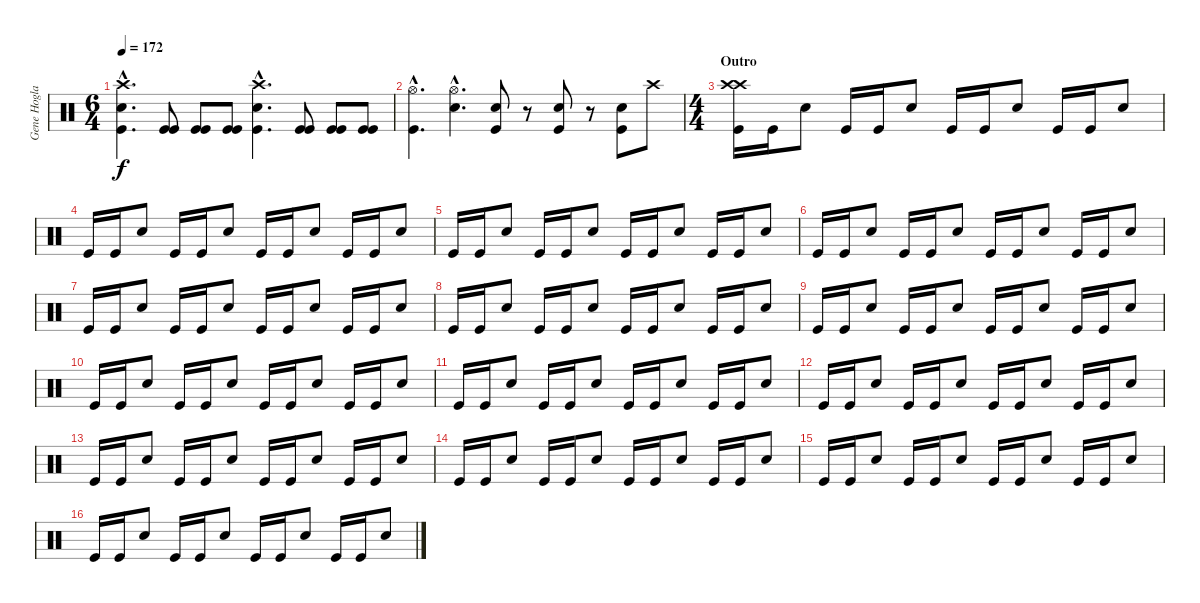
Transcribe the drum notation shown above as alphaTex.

\track ("Gene Hoglan" "Gene Hogla") {instrument percussion}
\staff {score}
\articulation defaults
\ts (6 4)
\tempo 172
\clef neutral
\ks c
("Crash high (hit)"{hac} "Snare (hit) 2"{hac} "Kick (hit)"{hac}).4{d dy f} ("Kick (hit)" "Kick (hit)").8 ("Kick (hit)" "Kick (hit)").8 ("Kick (hit)" "Kick (hit)").8 ("Crash high (hit)"{hac} "Snare (hit) 2"{hac} "Kick (hit)"{hac}).4{d} ("Kick (hit)" "Kick (hit)").8 ("Kick (hit)" "Kick (hit)").8 ("Kick (hit)" "Kick (hit)").8 |
("Hi-Hat (open)"{hac} "Kick (hit)"{hac}).4{d} ("Hi-Hat (open)"{hac} "Snare (hit) 2"{hac}).4{d} ("Snare (hit) 2" "Kick (hit)").8 r.8 ("Snare (hit) 2" "Kick (hit)").8 r.8 ("Snare (hit) 2" "Kick (hit)").8 "Crash high (hit)".8 |
\ts (4 4)
\section ("" "Outro")
("Crash high (hit)" "Crash high (hit)" "Kick (hit)").16 "Kick (hit)".16 "Snare (hit) 2".8 "Kick (hit)".16 "Kick (hit)".16 "Snare (hit) 2".8 "Kick (hit)".16 "Kick (hit)".16 "Snare (hit) 2".8 "Kick (hit)".16 "Kick (hit)".16 "Snare (hit) 2".8 |
"Kick (hit)".16 "Kick (hit)".16 "Snare (hit) 2".8 "Kick (hit)".16 "Kick (hit)".16 "Snare (hit) 2".8 "Kick (hit)".16 "Kick (hit)".16 "Snare (hit) 2".8 "Kick (hit)".16 "Kick (hit)".16 "Snare (hit) 2".8 |
"Kick (hit)".16 "Kick (hit)".16 "Snare (hit) 2".8 "Kick (hit)".16 "Kick (hit)".16 "Snare (hit) 2".8 "Kick (hit)".16 "Kick (hit)".16 "Snare (hit) 2".8 "Kick (hit)".16 "Kick (hit)".16 "Snare (hit) 2".8 |
"Kick (hit)".16 "Kick (hit)".16 "Snare (hit) 2".8 "Kick (hit)".16 "Kick (hit)".16 "Snare (hit) 2".8 "Kick (hit)".16 "Kick (hit)".16 "Snare (hit) 2".8 "Kick (hit)".16 "Kick (hit)".16 "Snare (hit) 2".8 |
"Kick (hit)".16 "Kick (hit)".16 "Snare (hit) 2".8 "Kick (hit)".16 "Kick (hit)".16 "Snare (hit) 2".8 "Kick (hit)".16 "Kick (hit)".16 "Snare (hit) 2".8 "Kick (hit)".16 "Kick (hit)".16 "Snare (hit) 2".8 |
"Kick (hit)".16 "Kick (hit)".16 "Snare (hit) 2".8 "Kick (hit)".16 "Kick (hit)".16 "Snare (hit) 2".8 "Kick (hit)".16 "Kick (hit)".16 "Snare (hit) 2".8 "Kick (hit)".16 "Kick (hit)".16 "Snare (hit) 2".8 |
"Kick (hit)".16 "Kick (hit)".16 "Snare (hit) 2".8 "Kick (hit)".16 "Kick (hit)".16 "Snare (hit) 2".8 "Kick (hit)".16 "Kick (hit)".16 "Snare (hit) 2".8 "Kick (hit)".16 "Kick (hit)".16 "Snare (hit) 2".8 |
"Kick (hit)".16 "Kick (hit)".16 "Snare (hit) 2".8 "Kick (hit)".16 "Kick (hit)".16 "Snare (hit) 2".8 "Kick (hit)".16 "Kick (hit)".16 "Snare (hit) 2".8 "Kick (hit)".16 "Kick (hit)".16 "Snare (hit) 2".8 |
"Kick (hit)".16 "Kick (hit)".16 "Snare (hit) 2".8 "Kick (hit)".16 "Kick (hit)".16 "Snare (hit) 2".8 "Kick (hit)".16 "Kick (hit)".16 "Snare (hit) 2".8 "Kick (hit)".16 "Kick (hit)".16 "Snare (hit) 2".8 |
"Kick (hit)".16 "Kick (hit)".16 "Snare (hit) 2".8 "Kick (hit)".16 "Kick (hit)".16 "Snare (hit) 2".8 "Kick (hit)".16 "Kick (hit)".16 "Snare (hit) 2".8 "Kick (hit)".16 "Kick (hit)".16 "Snare (hit) 2".8 |
"Kick (hit)".16 "Kick (hit)".16 "Snare (hit) 2".8 "Kick (hit)".16 "Kick (hit)".16 "Snare (hit) 2".8 "Kick (hit)".16 "Kick (hit)".16 "Snare (hit) 2".8 "Kick (hit)".16 "Kick (hit)".16 "Snare (hit) 2".8 |
"Kick (hit)".16 "Kick (hit)".16 "Snare (hit) 2".8 "Kick (hit)".16 "Kick (hit)".16 "Snare (hit) 2".8 "Kick (hit)".16 "Kick (hit)".16 "Snare (hit) 2".8 "Kick (hit)".16 "Kick (hit)".16 "Snare (hit) 2".8 |
"Kick (hit)".16 "Kick (hit)".16 "Snare (hit) 2".8 "Kick (hit)".16 "Kick (hit)".16 "Snare (hit) 2".8 "Kick (hit)".16 "Kick (hit)".16 "Snare (hit) 2".8 "Kick (hit)".16 "Kick (hit)".16 "Snare (hit) 2".8 |
"Kick (hit)".16 "Kick (hit)".16 "Snare (hit) 2".8 "Kick (hit)".16 "Kick (hit)".16 "Snare (hit) 2".8 "Kick (hit)".16 "Kick (hit)".16 "Snare (hit) 2".8 "Kick (hit)".16 "Kick (hit)".16 "Snare (hit) 2".8
